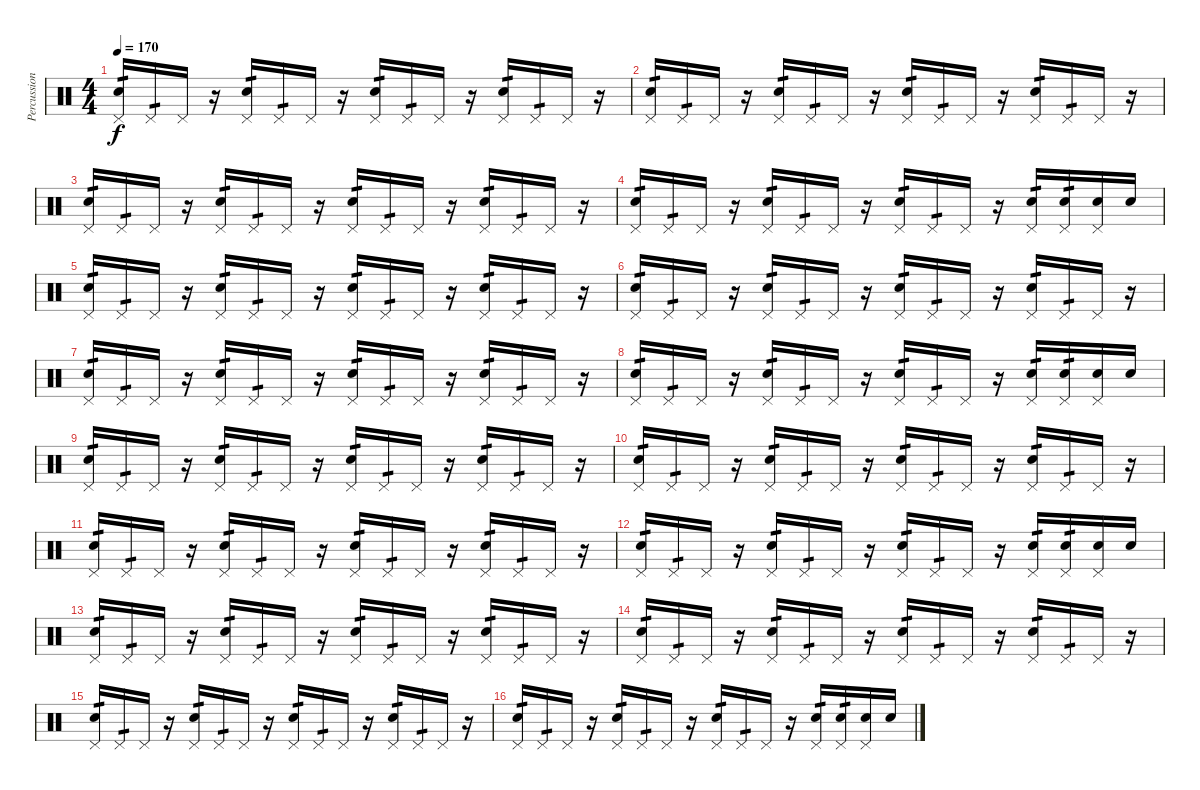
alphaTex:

\track ("Percussion" "Percussion") {instrument percussion}
\staff {score}
\articulation defaults
\ts (4 4)
\tempo 170
\clef neutral
\ks c
("Electric Snare (hit)" "Pedal Hi-Hat (hit)").16{tp 1 dy f} "Pedal Hi-Hat (hit)".16{tp 1} "Pedal Hi-Hat (hit)".16 r.16 ("Electric Snare (hit)" "Pedal Hi-Hat (hit)").16{tp 1} "Pedal Hi-Hat (hit)".16{tp 1} "Pedal Hi-Hat (hit)".16 r.16 ("Electric Snare (hit)" "Pedal Hi-Hat (hit)").16{tp 1} "Pedal Hi-Hat (hit)".16{tp 1} "Pedal Hi-Hat (hit)".16 r.16 ("Electric Snare (hit)" "Pedal Hi-Hat (hit)").16{tp 1} "Pedal Hi-Hat (hit)".16{tp 1} "Pedal Hi-Hat (hit)".16 r.16 |
("Electric Snare (hit)" "Pedal Hi-Hat (hit)").16{tp 1} "Pedal Hi-Hat (hit)".16{tp 1} "Pedal Hi-Hat (hit)".16 r.16 ("Electric Snare (hit)" "Pedal Hi-Hat (hit)").16{tp 1} "Pedal Hi-Hat (hit)".16{tp 1} "Pedal Hi-Hat (hit)".16 r.16 ("Electric Snare (hit)" "Pedal Hi-Hat (hit)").16{tp 1} "Pedal Hi-Hat (hit)".16{tp 1} "Pedal Hi-Hat (hit)".16 r.16 ("Electric Snare (hit)" "Pedal Hi-Hat (hit)").16{tp 1} "Pedal Hi-Hat (hit)".16{tp 1} "Pedal Hi-Hat (hit)".16 r.16 |
("Electric Snare (hit)" "Pedal Hi-Hat (hit)").16{tp 1} "Pedal Hi-Hat (hit)".16{tp 1} "Pedal Hi-Hat (hit)".16 r.16 ("Electric Snare (hit)" "Pedal Hi-Hat (hit)").16{tp 1} "Pedal Hi-Hat (hit)".16{tp 1} "Pedal Hi-Hat (hit)".16 r.16 ("Electric Snare (hit)" "Pedal Hi-Hat (hit)").16{tp 1} "Pedal Hi-Hat (hit)".16{tp 1} "Pedal Hi-Hat (hit)".16 r.16 ("Electric Snare (hit)" "Pedal Hi-Hat (hit)").16{tp 1} "Pedal Hi-Hat (hit)".16{tp 1} "Pedal Hi-Hat (hit)".16 r.16 |
("Electric Snare (hit)" "Pedal Hi-Hat (hit)").16{tp 1} "Pedal Hi-Hat (hit)".16{tp 1} "Pedal Hi-Hat (hit)".16 r.16 ("Electric Snare (hit)" "Pedal Hi-Hat (hit)").16{tp 1} "Pedal Hi-Hat (hit)".16{tp 1} "Pedal Hi-Hat (hit)".16 r.16 ("Electric Snare (hit)" "Pedal Hi-Hat (hit)").16{tp 1} "Pedal Hi-Hat (hit)".16{tp 1} "Pedal Hi-Hat (hit)".16 r.16 ("Electric Snare (hit)" "Pedal Hi-Hat (hit)").16{tp 1} ("Electric Snare (hit)" "Pedal Hi-Hat (hit)").16{tp 1} ("Electric Snare (hit)" "Pedal Hi-Hat (hit)").16 "Electric Snare (hit)".16 |
("Electric Snare (hit)" "Pedal Hi-Hat (hit)").16{tp 1} "Pedal Hi-Hat (hit)".16{tp 1} "Pedal Hi-Hat (hit)".16 r.16 ("Electric Snare (hit)" "Pedal Hi-Hat (hit)").16{tp 1} "Pedal Hi-Hat (hit)".16{tp 1} "Pedal Hi-Hat (hit)".16 r.16 ("Electric Snare (hit)" "Pedal Hi-Hat (hit)").16{tp 1} "Pedal Hi-Hat (hit)".16{tp 1} "Pedal Hi-Hat (hit)".16 r.16 ("Electric Snare (hit)" "Pedal Hi-Hat (hit)").16{tp 1} "Pedal Hi-Hat (hit)".16{tp 1} "Pedal Hi-Hat (hit)".16 r.16 |
("Electric Snare (hit)" "Pedal Hi-Hat (hit)").16{tp 1} "Pedal Hi-Hat (hit)".16{tp 1} "Pedal Hi-Hat (hit)".16 r.16 ("Electric Snare (hit)" "Pedal Hi-Hat (hit)").16{tp 1} "Pedal Hi-Hat (hit)".16{tp 1} "Pedal Hi-Hat (hit)".16 r.16 ("Electric Snare (hit)" "Pedal Hi-Hat (hit)").16{tp 1} "Pedal Hi-Hat (hit)".16{tp 1} "Pedal Hi-Hat (hit)".16 r.16 ("Electric Snare (hit)" "Pedal Hi-Hat (hit)").16{tp 1} "Pedal Hi-Hat (hit)".16{tp 1} "Pedal Hi-Hat (hit)".16 r.16 |
("Electric Snare (hit)" "Pedal Hi-Hat (hit)").16{tp 1} "Pedal Hi-Hat (hit)".16{tp 1} "Pedal Hi-Hat (hit)".16 r.16 ("Electric Snare (hit)" "Pedal Hi-Hat (hit)").16{tp 1} "Pedal Hi-Hat (hit)".16{tp 1} "Pedal Hi-Hat (hit)".16 r.16 ("Electric Snare (hit)" "Pedal Hi-Hat (hit)").16{tp 1} "Pedal Hi-Hat (hit)".16{tp 1} "Pedal Hi-Hat (hit)".16 r.16 ("Electric Snare (hit)" "Pedal Hi-Hat (hit)").16{tp 1} "Pedal Hi-Hat (hit)".16{tp 1} "Pedal Hi-Hat (hit)".16 r.16 |
("Electric Snare (hit)" "Pedal Hi-Hat (hit)").16{tp 1} "Pedal Hi-Hat (hit)".16{tp 1} "Pedal Hi-Hat (hit)".16 r.16 ("Electric Snare (hit)" "Pedal Hi-Hat (hit)").16{tp 1} "Pedal Hi-Hat (hit)".16{tp 1} "Pedal Hi-Hat (hit)".16 r.16 ("Electric Snare (hit)" "Pedal Hi-Hat (hit)").16{tp 1} "Pedal Hi-Hat (hit)".16{tp 1} "Pedal Hi-Hat (hit)".16 r.16 ("Electric Snare (hit)" "Pedal Hi-Hat (hit)").16{tp 1} ("Electric Snare (hit)" "Pedal Hi-Hat (hit)").16{tp 1} ("Electric Snare (hit)" "Pedal Hi-Hat (hit)").16 "Electric Snare (hit)".16 |
("Electric Snare (hit)" "Pedal Hi-Hat (hit)").16{tp 1} "Pedal Hi-Hat (hit)".16{tp 1} "Pedal Hi-Hat (hit)".16 r.16 ("Electric Snare (hit)" "Pedal Hi-Hat (hit)").16{tp 1} "Pedal Hi-Hat (hit)".16{tp 1} "Pedal Hi-Hat (hit)".16 r.16 ("Electric Snare (hit)" "Pedal Hi-Hat (hit)").16{tp 1} "Pedal Hi-Hat (hit)".16{tp 1} "Pedal Hi-Hat (hit)".16 r.16 ("Electric Snare (hit)" "Pedal Hi-Hat (hit)").16{tp 1} "Pedal Hi-Hat (hit)".16{tp 1} "Pedal Hi-Hat (hit)".16 r.16 |
("Electric Snare (hit)" "Pedal Hi-Hat (hit)").16{tp 1} "Pedal Hi-Hat (hit)".16{tp 1} "Pedal Hi-Hat (hit)".16 r.16 ("Electric Snare (hit)" "Pedal Hi-Hat (hit)").16{tp 1} "Pedal Hi-Hat (hit)".16{tp 1} "Pedal Hi-Hat (hit)".16 r.16 ("Electric Snare (hit)" "Pedal Hi-Hat (hit)").16{tp 1} "Pedal Hi-Hat (hit)".16{tp 1} "Pedal Hi-Hat (hit)".16 r.16 ("Electric Snare (hit)" "Pedal Hi-Hat (hit)").16{tp 1} "Pedal Hi-Hat (hit)".16{tp 1} "Pedal Hi-Hat (hit)".16 r.16 |
("Electric Snare (hit)" "Pedal Hi-Hat (hit)").16{tp 1} "Pedal Hi-Hat (hit)".16{tp 1} "Pedal Hi-Hat (hit)".16 r.16 ("Electric Snare (hit)" "Pedal Hi-Hat (hit)").16{tp 1} "Pedal Hi-Hat (hit)".16{tp 1} "Pedal Hi-Hat (hit)".16 r.16 ("Electric Snare (hit)" "Pedal Hi-Hat (hit)").16{tp 1} "Pedal Hi-Hat (hit)".16{tp 1} "Pedal Hi-Hat (hit)".16 r.16 ("Electric Snare (hit)" "Pedal Hi-Hat (hit)").16{tp 1} "Pedal Hi-Hat (hit)".16{tp 1} "Pedal Hi-Hat (hit)".16 r.16 |
("Electric Snare (hit)" "Pedal Hi-Hat (hit)").16{tp 1} "Pedal Hi-Hat (hit)".16{tp 1} "Pedal Hi-Hat (hit)".16 r.16 ("Electric Snare (hit)" "Pedal Hi-Hat (hit)").16{tp 1} "Pedal Hi-Hat (hit)".16{tp 1} "Pedal Hi-Hat (hit)".16 r.16 ("Electric Snare (hit)" "Pedal Hi-Hat (hit)").16{tp 1} "Pedal Hi-Hat (hit)".16{tp 1} "Pedal Hi-Hat (hit)".16 r.16 ("Electric Snare (hit)" "Pedal Hi-Hat (hit)").16{tp 1} ("Electric Snare (hit)" "Pedal Hi-Hat (hit)").16{tp 1} ("Electric Snare (hit)" "Pedal Hi-Hat (hit)").16 "Electric Snare (hit)".16 |
("Electric Snare (hit)" "Pedal Hi-Hat (hit)").16{tp 1} "Pedal Hi-Hat (hit)".16{tp 1} "Pedal Hi-Hat (hit)".16 r.16 ("Electric Snare (hit)" "Pedal Hi-Hat (hit)").16{tp 1} "Pedal Hi-Hat (hit)".16{tp 1} "Pedal Hi-Hat (hit)".16 r.16 ("Electric Snare (hit)" "Pedal Hi-Hat (hit)").16{tp 1} "Pedal Hi-Hat (hit)".16{tp 1} "Pedal Hi-Hat (hit)".16 r.16 ("Electric Snare (hit)" "Pedal Hi-Hat (hit)").16{tp 1} "Pedal Hi-Hat (hit)".16{tp 1} "Pedal Hi-Hat (hit)".16 r.16 |
("Electric Snare (hit)" "Pedal Hi-Hat (hit)").16{tp 1} "Pedal Hi-Hat (hit)".16{tp 1} "Pedal Hi-Hat (hit)".16 r.16 ("Electric Snare (hit)" "Pedal Hi-Hat (hit)").16{tp 1} "Pedal Hi-Hat (hit)".16{tp 1} "Pedal Hi-Hat (hit)".16 r.16 ("Electric Snare (hit)" "Pedal Hi-Hat (hit)").16{tp 1} "Pedal Hi-Hat (hit)".16{tp 1} "Pedal Hi-Hat (hit)".16 r.16 ("Electric Snare (hit)" "Pedal Hi-Hat (hit)").16{tp 1} "Pedal Hi-Hat (hit)".16{tp 1} "Pedal Hi-Hat (hit)".16 r.16 |
("Electric Snare (hit)" "Pedal Hi-Hat (hit)").16{tp 1} "Pedal Hi-Hat (hit)".16{tp 1} "Pedal Hi-Hat (hit)".16 r.16 ("Electric Snare (hit)" "Pedal Hi-Hat (hit)").16{tp 1} "Pedal Hi-Hat (hit)".16{tp 1} "Pedal Hi-Hat (hit)".16 r.16 ("Electric Snare (hit)" "Pedal Hi-Hat (hit)").16{tp 1} "Pedal Hi-Hat (hit)".16{tp 1} "Pedal Hi-Hat (hit)".16 r.16 ("Electric Snare (hit)" "Pedal Hi-Hat (hit)").16{tp 1} "Pedal Hi-Hat (hit)".16{tp 1} "Pedal Hi-Hat (hit)".16 r.16 |
("Electric Snare (hit)" "Pedal Hi-Hat (hit)").16{tp 1} "Pedal Hi-Hat (hit)".16{tp 1} "Pedal Hi-Hat (hit)".16 r.16 ("Electric Snare (hit)" "Pedal Hi-Hat (hit)").16{tp 1} "Pedal Hi-Hat (hit)".16{tp 1} "Pedal Hi-Hat (hit)".16 r.16 ("Electric Snare (hit)" "Pedal Hi-Hat (hit)").16{tp 1} "Pedal Hi-Hat (hit)".16{tp 1} "Pedal Hi-Hat (hit)".16 r.16 ("Electric Snare (hit)" "Pedal Hi-Hat (hit)").16{tp 1} ("Electric Snare (hit)" "Pedal Hi-Hat (hit)").16{tp 1} ("Electric Snare (hit)" "Pedal Hi-Hat (hit)").16 "Electric Snare (hit)".16
